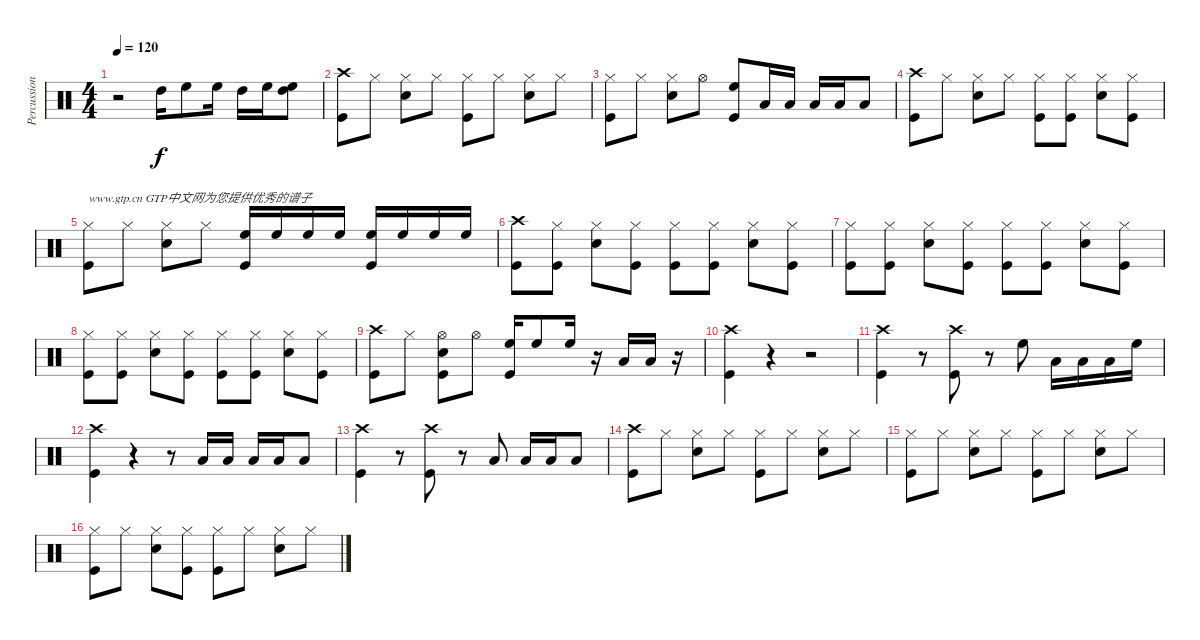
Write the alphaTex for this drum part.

\track ("Percussion" "Percussion") {instrument percussion}
\staff {score}
\articulation defaults
\ts (4 4)
\tempo 120
\clef neutral
\ks c
r.2{dy f} "High Tom (hit)".16 "High Floor Tom (hit)".8 "High Floor Tom (hit)".16 "High Tom (hit)".16 "High Floor Tom (hit)".16 ("High Floor Tom (hit)" "High Tom (hit)").8 |
("Crash high (hit)" "Kick (hit)").8 "Hi-Hat (closed)".8 ("Hi-Hat (closed)" "Snare (hit) 2").8 "Hi-Hat (closed)".8 ("Hi-Hat (closed)" "Kick (hit)").8 "Hi-Hat (closed)".8 ("Hi-Hat (closed)" "Snare (hit) 2").8 "Hi-Hat (closed)".8 |
("Hi-Hat (closed)" "Kick (hit)").8 "Hi-Hat (closed)".8 ("Hi-Hat (closed)" "Snare (hit) 2").8 "Hi-Hat (open)".8 ("High Floor Tom (hit)" "Kick (hit)").8 "Low Floor Tom (hit)".16 "Low Floor Tom (hit)".16 "Low Floor Tom (hit)".16 "Low Floor Tom (hit)".16 "Low Floor Tom (hit)".8 |
("Crash high (hit)" "Kick (hit)").8 "Hi-Hat (closed)".8 ("Hi-Hat (closed)" "Snare (hit) 2").8 "Hi-Hat (closed)".8 ("Hi-Hat (closed)" "Kick (hit)").8 ("Hi-Hat (closed)" "Kick (hit)").8 ("Hi-Hat (closed)" "Snare (hit) 2").8 ("Hi-Hat (closed)" "Kick (hit)").8 |
("Hi-Hat (closed)" "Kick (hit)").8{txt "www.gtp.cn GTP中文网为您提供优秀的谱子"} "Hi-Hat (closed)".8 ("Hi-Hat (closed)" "Snare (hit) 2").8 "Hi-Hat (closed)".8 ("High Floor Tom (hit)" "Kick (hit)").16 "High Floor Tom (hit)".16 "High Floor Tom (hit)".16 "High Floor Tom (hit)".16 ("High Floor Tom (hit)" "Kick (hit)").16 "High Floor Tom (hit)".16 "High Floor Tom (hit)".16 "High Floor Tom (hit)".16 |
("Crash high (hit)" "Kick (hit)").8 ("Hi-Hat (closed)" "Kick (hit)").8 ("Hi-Hat (closed)" "Snare (hit) 2").8 ("Hi-Hat (closed)" "Kick (hit)").8 ("Hi-Hat (closed)" "Kick (hit)").8 ("Hi-Hat (closed)" "Kick (hit)").8 ("Hi-Hat (closed)" "Snare (hit) 2").8 ("Hi-Hat (closed)" "Kick (hit)").8 |
("Hi-Hat (closed)" "Kick (hit)").8 ("Hi-Hat (closed)" "Kick (hit)").8 ("Hi-Hat (closed)" "Snare (hit) 2").8 ("Hi-Hat (closed)" "Kick (hit)").8 ("Hi-Hat (closed)" "Kick (hit)").8 ("Hi-Hat (closed)" "Kick (hit)").8 ("Hi-Hat (closed)" "Snare (hit) 2").8 ("Hi-Hat (closed)" "Kick (hit)").8 |
("Hi-Hat (closed)" "Kick (hit)").8 ("Hi-Hat (closed)" "Kick (hit)").8 ("Hi-Hat (closed)" "Snare (hit) 2").8 ("Hi-Hat (closed)" "Kick (hit)").8 ("Hi-Hat (closed)" "Kick (hit)").8 ("Hi-Hat (closed)" "Kick (hit)").8 ("Hi-Hat (closed)" "Snare (hit) 2").8 ("Hi-Hat (closed)" "Kick (hit)").8 |
("Crash high (hit)" "Kick (hit)").8 "Hi-Hat (closed)".8 ("Hi-Hat (open)" "Snare (hit) 2" "Kick (hit)").8 "Hi-Hat (open)".8 ("High Floor Tom (hit)" "Kick (hit)").16 "High Floor Tom (hit)".8 "High Floor Tom (hit)".16 r.16 "Low Floor Tom (hit)".16 "Low Floor Tom (hit)".16 r.16 |
("Crash high (hit)" "Kick (hit)").4 r.4 r.2 |
("Crash high (hit)" "Kick (hit)").4 r.8 ("Crash high (hit)" "Kick (hit)").8 r.8 "High Floor Tom (hit)".8 "Low Floor Tom (hit)".16 "Low Floor Tom (hit)".16 "Low Floor Tom (hit)".16 "High Floor Tom (hit)".16 |
("Crash high (hit)" "Kick (hit)").4 r.4 r.8 "Low Floor Tom (hit)".16 "Low Floor Tom (hit)".16 "Low Floor Tom (hit)".16 "Low Floor Tom (hit)".16 "Low Floor Tom (hit)".8 |
("Crash high (hit)" "Kick (hit)").4 r.8 ("Crash high (hit)" "Kick (hit)").8 r.8 "Low Floor Tom (hit)".8 "Low Floor Tom (hit)".16 "Low Floor Tom (hit)".16 "Low Floor Tom (hit)".8 |
("Crash high (hit)" "Kick (hit)").8 "Hi-Hat (closed)".8 ("Hi-Hat (closed)" "Snare (hit) 2").8 "Hi-Hat (closed)".8 ("Hi-Hat (closed)" "Kick (hit)").8 "Hi-Hat (closed)".8 ("Hi-Hat (closed)" "Snare (hit) 2").8 "Hi-Hat (closed)".8 |
("Hi-Hat (closed)" "Kick (hit)").8 "Hi-Hat (closed)".8 ("Hi-Hat (closed)" "Snare (hit) 2").8 "Hi-Hat (closed)".8 ("Hi-Hat (closed)" "Kick (hit)").8 "Hi-Hat (closed)".8 ("Hi-Hat (closed)" "Snare (hit) 2").8 "Hi-Hat (closed)".8 |
("Hi-Hat (closed)" "Kick (hit)").8 "Hi-Hat (closed)".8 ("Hi-Hat (closed)" "Snare (hit) 2").8 ("Hi-Hat (closed)" "Kick (hit)").8 ("Hi-Hat (closed)" "Kick (hit)").8 "Hi-Hat (closed)".8 ("Hi-Hat (closed)" "Snare (hit) 2").8 "Hi-Hat (closed)".8
